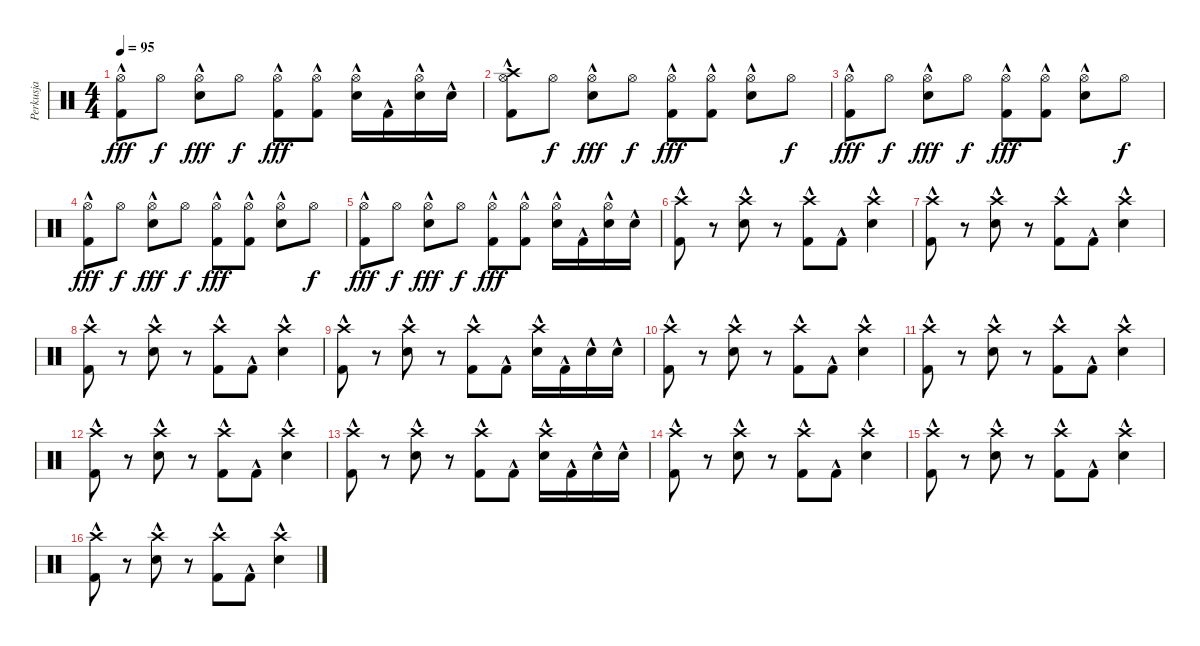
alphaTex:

\track ("Perkusja" "Perkusja") {instrument percussion}
\staff {score}
\articulation defaults
\ts (4 4)
\tempo 95
\clef neutral
\ks c
("Hi-Hat (open)" "Kick (hit) 2"{hac}).8{dy fff} "Hi-Hat (open)".8{dy f} ("Hi-Hat (open)" "Electric Snare (hit)"{hac}).8{dy fff} "Hi-Hat (open)".8{dy f} ("Hi-Hat (open)" "Kick (hit) 2"{hac}).8{dy fff} ("Hi-Hat (open)" "Kick (hit) 2"{hac}).8 ("Hi-Hat (open)" "Electric Snare (hit)"{hac}).16 "Kick (hit) 2"{hac}.16 ("Hi-Hat (open)" "Electric Snare (hit)"{hac}).16 "Electric Snare (hit)"{hac}.16 |
("Crash high (hit)" "Hi-Hat (open)" "Kick (hit) 2"{hac}).8 "Hi-Hat (open)".8{dy f} ("Hi-Hat (open)" "Electric Snare (hit)"{hac}).8{dy fff} "Hi-Hat (open)".8{dy f} ("Hi-Hat (open)" "Kick (hit) 2"{hac}).8{dy fff} ("Hi-Hat (open)" "Kick (hit) 2"{hac}).8 ("Hi-Hat (open)" "Electric Snare (hit)"{hac}).8 "Hi-Hat (open)".8{dy f} |
("Hi-Hat (open)" "Kick (hit) 2"{hac}).8{dy fff} "Hi-Hat (open)".8{dy f} ("Hi-Hat (open)" "Electric Snare (hit)"{hac}).8{dy fff} "Hi-Hat (open)".8{dy f} ("Hi-Hat (open)" "Kick (hit) 2"{hac}).8{dy fff} ("Hi-Hat (open)" "Kick (hit) 2"{hac}).8 ("Hi-Hat (open)" "Electric Snare (hit)"{hac}).8 "Hi-Hat (open)".8{dy f} |
("Hi-Hat (open)" "Kick (hit) 2"{hac}).8{dy fff} "Hi-Hat (open)".8{dy f} ("Hi-Hat (open)" "Electric Snare (hit)"{hac}).8{dy fff} "Hi-Hat (open)".8{dy f} ("Hi-Hat (open)" "Kick (hit) 2"{hac}).8{dy fff} ("Hi-Hat (open)" "Kick (hit) 2"{hac}).8 ("Hi-Hat (open)" "Electric Snare (hit)"{hac}).8 "Hi-Hat (open)".8{dy f} |
("Hi-Hat (open)" "Kick (hit) 2"{hac}).8{dy fff} "Hi-Hat (open)".8{dy f} ("Hi-Hat (open)" "Electric Snare (hit)"{hac}).8{dy fff} "Hi-Hat (open)".8{dy f} ("Hi-Hat (open)" "Kick (hit) 2"{hac}).8{dy fff} ("Hi-Hat (open)" "Kick (hit) 2"{hac}).8 ("Hi-Hat (open)" "Electric Snare (hit)"{hac}).16 "Kick (hit) 2"{hac}.16 ("Hi-Hat (open)" "Electric Snare (hit)"{hac}).16 "Electric Snare (hit)"{hac}.16 |
("Crash high (hit)" "Kick (hit) 2"{hac}).8 r.8 ("Crash high (hit)" "Electric Snare (hit)"{hac}).8 r.8 ("Crash high (hit)" "Kick (hit) 2"{hac}).8 "Kick (hit) 2"{hac}.8 ("Crash high (hit)" "Electric Snare (hit)"{hac}).4 |
("Crash high (hit)" "Kick (hit) 2"{hac}).8 r.8 ("Crash high (hit)" "Electric Snare (hit)"{hac}).8 r.8 ("Crash high (hit)" "Kick (hit) 2"{hac}).8 "Kick (hit) 2"{hac}.8 ("Crash high (hit)" "Electric Snare (hit)"{hac}).4 |
("Crash high (hit)" "Kick (hit) 2"{hac}).8 r.8 ("Crash high (hit)" "Electric Snare (hit)"{hac}).8 r.8 ("Crash high (hit)" "Kick (hit) 2"{hac}).8 "Kick (hit) 2"{hac}.8 ("Crash high (hit)" "Electric Snare (hit)"{hac}).4 |
("Crash high (hit)" "Kick (hit) 2"{hac}).8 r.8 ("Crash high (hit)" "Electric Snare (hit)"{hac}).8 r.8 ("Crash high (hit)" "Kick (hit) 2"{hac}).8 "Kick (hit) 2"{hac}.8 ("Crash high (hit)" "Electric Snare (hit)"{hac}).16 "Kick (hit) 2"{hac}.16 "Electric Snare (hit)"{hac}.16 "Electric Snare (hit)"{hac}.16 |
("Crash high (hit)" "Kick (hit) 2"{hac}).8 r.8 ("Crash high (hit)" "Electric Snare (hit)"{hac}).8 r.8 ("Crash high (hit)" "Kick (hit) 2"{hac}).8 "Kick (hit) 2"{hac}.8 ("Crash high (hit)" "Electric Snare (hit)"{hac}).4 |
("Crash high (hit)" "Kick (hit) 2"{hac}).8 r.8 ("Crash high (hit)" "Electric Snare (hit)"{hac}).8 r.8 ("Crash high (hit)" "Kick (hit) 2"{hac}).8 "Kick (hit) 2"{hac}.8 ("Crash high (hit)" "Electric Snare (hit)"{hac}).4 |
("Crash high (hit)" "Kick (hit) 2"{hac}).8 r.8 ("Crash high (hit)" "Electric Snare (hit)"{hac}).8 r.8 ("Crash high (hit)" "Kick (hit) 2"{hac}).8 "Kick (hit) 2"{hac}.8 ("Crash high (hit)" "Electric Snare (hit)"{hac}).4 |
("Crash high (hit)" "Kick (hit) 2"{hac}).8 r.8 ("Crash high (hit)" "Electric Snare (hit)"{hac}).8 r.8 ("Crash high (hit)" "Kick (hit) 2"{hac}).8 "Kick (hit) 2"{hac}.8 ("Crash high (hit)" "Electric Snare (hit)"{hac}).16 "Kick (hit) 2"{hac}.16 "Electric Snare (hit)"{hac}.16 "Electric Snare (hit)"{hac}.16 |
("Crash high (hit)" "Kick (hit) 2"{hac}).8 r.8 ("Crash high (hit)" "Electric Snare (hit)"{hac}).8 r.8 ("Crash high (hit)" "Kick (hit) 2"{hac}).8 "Kick (hit) 2"{hac}.8 ("Crash high (hit)" "Electric Snare (hit)"{hac}).4 |
("Crash high (hit)" "Kick (hit) 2"{hac}).8 r.8 ("Crash high (hit)" "Electric Snare (hit)"{hac}).8 r.8 ("Crash high (hit)" "Kick (hit) 2"{hac}).8 "Kick (hit) 2"{hac}.8 ("Crash high (hit)" "Electric Snare (hit)"{hac}).4 |
("Crash high (hit)" "Kick (hit) 2"{hac}).8 r.8 ("Crash high (hit)" "Electric Snare (hit)"{hac}).8 r.8 ("Crash high (hit)" "Kick (hit) 2"{hac}).8 "Kick (hit) 2"{hac}.8 ("Crash high (hit)" "Electric Snare (hit)"{hac}).4
